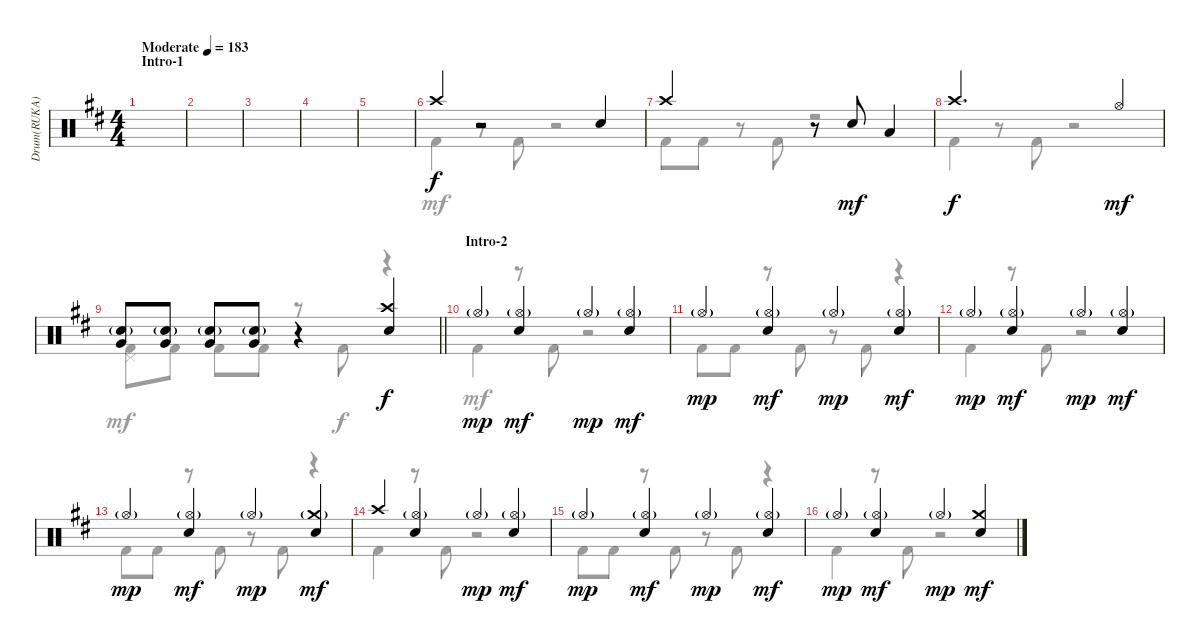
\track ("Drum(RUKA)" "Drum(RUKA)") {instrument percussion}
\staff {score}
\articulation defaults
\voice
\ts (4 4)
\section ("" "Intro-1")
\tempo (183 "Moderate")
\clef neutral
\ks d
|
|
|
|
|
"Crash high (hit)".4 r.2 "Snare (hit) 2".4 |
"Crash high (hit)".2 r.8 "Snare (hit) 2".8{dy mf} "Low Tom (hit)".4 |
"Crash high (hit)".2{d dy f} "Hi-Hat (open)".4{dy mf} |
\barLineRight lightlight
("Snare (hit) 2"{g} "Very Low Tom (hit)").8 ("Snare (hit) 2"{g} "Very Low Tom (hit)").8 ("Snare (hit) 2"{g} "Very Low Tom (hit)").8 ("Snare (hit) 2"{g} "Very Low Tom (hit)").8 r.4 ("Crash high (hit)" "Snare (hit) 2").4{dy f} |
\section ("" "Intro-2")
"Hi-Hat (open)"{g}.4{dy mp} ("Hi-Hat (open)"{g} "Snare (hit) 2").4{dy mf} "Hi-Hat (open)"{g}.4{dy mp} ("Hi-Hat (open)"{g} "Snare (hit) 2").4{dy mf} |
"Hi-Hat (open)"{g}.4{dy mp} ("Hi-Hat (open)"{g} "Snare (hit) 2").4{dy mf} "Hi-Hat (open)"{g}.4{dy mp} ("Hi-Hat (open)"{g} "Snare (hit) 2").4{dy mf} |
"Hi-Hat (open)"{g}.4{dy mp} ("Hi-Hat (open)"{g} "Snare (hit) 2").4{dy mf} "Hi-Hat (open)"{g}.4{dy mp} ("Hi-Hat (open)"{g} "Snare (hit) 2").4{dy mf} |
"Hi-Hat (open)"{g}.4{dy mp} ("Hi-Hat (open)"{g} "Snare (hit) 2").4{dy mf} "Hi-Hat (open)"{g}.4{dy mp} ("Crash medium (hit)"{g} "Snare (hit) 2").4{dy mf} |
"Crash high (hit)".4 ("Hi-Hat (open)"{g} "Snare (hit) 2").4 "Hi-Hat (open)"{g}.4{dy mp} ("Hi-Hat (open)"{g} "Snare (hit) 2").4{dy mf} |
"Hi-Hat (open)"{g}.4{dy mp} ("Hi-Hat (open)"{g} "Snare (hit) 2").4{dy mf} "Hi-Hat (open)"{g}.4{dy mp} ("Hi-Hat (open)"{g} "Snare (hit) 2").4{dy mf} |
"Hi-Hat (open)"{g}.4{dy mp} ("Hi-Hat (open)"{g} "Snare (hit) 2").4{dy mf} "Hi-Hat (open)"{g}.4{dy mp} ("Crash medium (hit)" "Snare (hit) 2").4{dy mf}
\voice
\clef neutral
\ottava regular
\simile none
\ks d
|
|
|
|
|
"Kick (hit) 2".4 r.8 "Kick (hit) 2".8 r.2 |
"Kick (hit) 2".8{dy mf} "Kick (hit) 2".8 r.8 "Kick (hit) 2".8 r.2 |
"Kick (hit) 2".4{dy f} r.8 "Kick (hit) 2".8 r.2 |
\barLineRight lightlight
("Pedal Hi-Hat (hit)" "Kick (hit) 2").8{dy mf} "Kick (hit) 2".8 "Kick (hit) 2".8 "Kick (hit) 2".8 r.8 "Kick (hit) 2".8{dy f} r.4 |
"Kick (hit) 2".4{dy mf} r.8 "Kick (hit) 2".8 r.2 |
"Kick (hit) 2".8 "Kick (hit) 2".8 r.8 "Kick (hit) 2".8 r.8 "Kick (hit) 2".8 r.4 |
"Kick (hit) 2".4 r.8 "Kick (hit) 2".8 r.2 |
"Kick (hit) 2".8 "Kick (hit) 2".8 r.8 "Kick (hit) 2".8 r.8 "Kick (hit) 2".8 r.4 |
"Kick (hit) 2".4 r.8 "Kick (hit) 2".8 r.2 |
"Kick (hit) 2".8 "Kick (hit) 2".8 r.8 "Kick (hit) 2".8 r.8 "Kick (hit) 2".8 r.4 |
"Kick (hit) 2".4 r.8 "Kick (hit) 2".8 r.2
